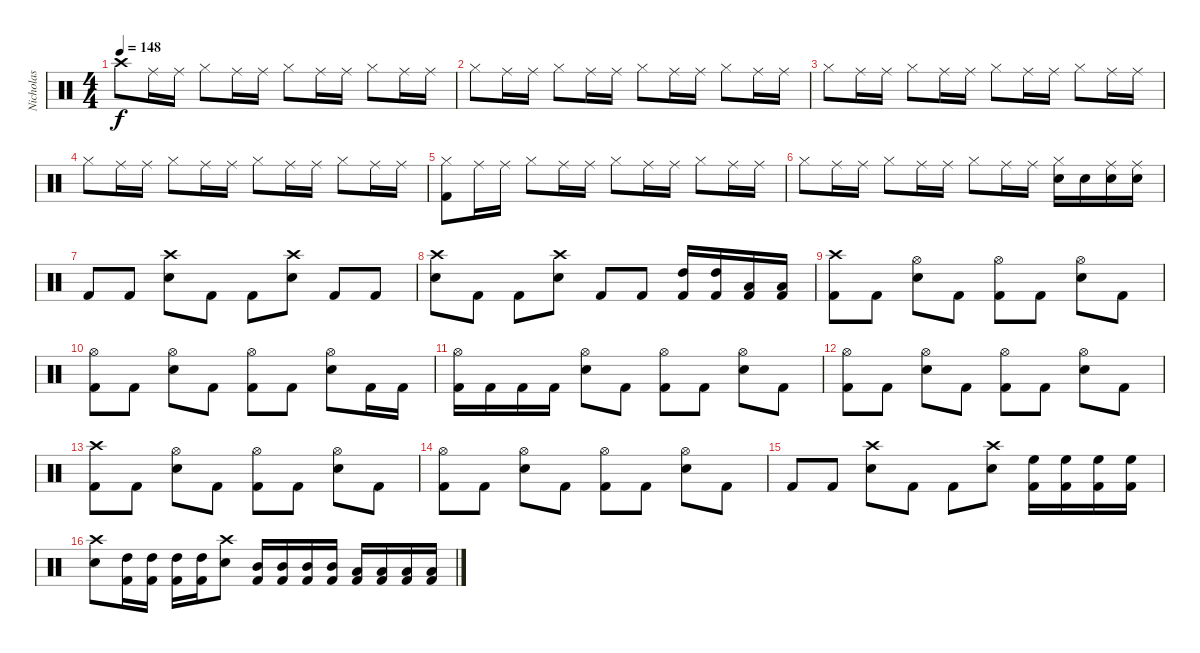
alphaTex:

\track ("Nicholas" "Nicholas") {instrument percussion}
\staff {score}
\articulation defaults
\ts (4 4)
\tempo 148
\clef neutral
\ks c "Crash high (hit)".8{dy f} "Ride (middle)".16 "Ride (middle)".16 "Hi-Hat (closed)".8 "Ride (middle)".16 "Ride (middle)".16 "Hi-Hat (closed)".8 "Ride (middle)".16 "Ride (middle)".16 "Hi-Hat (closed)".8 "Ride (middle)".16 "Ride (middle)".16
|
"Hi-Hat (closed)".8 "Ride (middle)".16 "Ride (middle)".16 "Hi-Hat (closed)".8 "Ride (middle)".16 "Ride (middle)".16 "Hi-Hat (closed)".8 "Ride (middle)".16 "Ride (middle)".16 "Hi-Hat (closed)".8 "Ride (middle)".16 "Ride (middle)".16 |
"Hi-Hat (closed)".8 "Ride (middle)".16 "Ride (middle)".16 "Hi-Hat (closed)".8 "Ride (middle)".16 "Ride (middle)".16 "Hi-Hat (closed)".8 "Ride (middle)".16 "Ride (middle)".16 "Hi-Hat (closed)".8 "Ride (middle)".16 "Ride (middle)".16 |
"Hi-Hat (closed)".8 "Ride (middle)".16 "Ride (middle)".16 "Hi-Hat (closed)".8 "Ride (middle)".16 "Ride (middle)".16 "Hi-Hat (closed)".8 "Ride (middle)".16 "Ride (middle)".16 "Hi-Hat (closed)".8 "Ride (middle)".16 "Ride (middle)".16 |
("Kick (hit) 2" "Hi-Hat (closed)").8 "Ride (middle)".16 "Ride (middle)".16 "Hi-Hat (closed)".8 "Ride (middle)".16 "Ride (middle)".16 "Hi-Hat (closed)".8 "Ride (middle)".16 "Ride (middle)".16 "Hi-Hat (closed)".8 "Ride (middle)".16 "Ride (middle)".16 |
"Hi-Hat (closed)".8 "Ride (middle)".16 "Ride (middle)".16 "Hi-Hat (closed)".8 "Ride (middle)".16 "Ride (middle)".16 "Hi-Hat (closed)".8 "Ride (middle)".16 "Ride (middle)".16 ("Snare (hit) 2" "Hi-Hat (closed)").16 "Snare (hit) 2".16 ("Snare (hit) 2" "Ride (middle)").16 ("Snare (hit) 2" "Ride (middle)").16 |
"Kick (hit) 2".8 "Kick (hit) 2".8 ("Snare (hit) 2" "Crash high (hit)").8 "Kick (hit) 2".8 "Kick (hit) 2".8 ("Snare (hit) 2" "Crash high (hit)").8 "Kick (hit) 2".8 "Kick (hit) 2".8 |
("Snare (hit) 2" "Crash high (hit)").8 "Kick (hit) 2".8 "Kick (hit) 2".8 ("Snare (hit) 2" "Crash high (hit)").8 "Kick (hit) 2".8 "Kick (hit) 2".8 ("Kick (hit) 2" "High Tom (hit)").16 ("Kick (hit) 2" "High Tom (hit)").16 ("Kick (hit) 2" "Low Tom (hit)").16 ("Kick (hit) 2" "Low Tom (hit)").16 |
("Kick (hit) 2" "Crash high (hit)").8 "Kick (hit) 2".8 ("Snare (hit) 2" "Hi-Hat (open)").8 "Kick (hit) 2".8 ("Kick (hit) 2" "Hi-Hat (open)").8 "Kick (hit) 2".8 ("Snare (hit) 2" "Hi-Hat (open)").8 "Kick (hit) 2".8 |
("Kick (hit) 2" "Hi-Hat (open)").8 "Kick (hit) 2".8 ("Snare (hit) 2" "Hi-Hat (open)").8 "Kick (hit) 2".8 ("Kick (hit) 2" "Hi-Hat (open)").8 "Kick (hit) 2".8 ("Snare (hit) 2" "Hi-Hat (open)").8 "Kick (hit) 2".16 "Kick (hit) 2".16 |
("Kick (hit) 2" "Hi-Hat (open)").16 "Kick (hit) 2".16 "Kick (hit) 2".16 "Kick (hit) 2".16 ("Snare (hit) 2" "Hi-Hat (open)").8 "Kick (hit) 2".8 ("Kick (hit) 2" "Hi-Hat (open)").8 "Kick (hit) 2".8 ("Snare (hit) 2" "Hi-Hat (open)").8 "Kick (hit) 2".8 |
("Kick (hit) 2" "Hi-Hat (open)").8 "Kick (hit) 2".8 ("Snare (hit) 2" "Hi-Hat (open)").8 "Kick (hit) 2".8 ("Kick (hit) 2" "Hi-Hat (open)").8 "Kick (hit) 2".8 ("Snare (hit) 2" "Hi-Hat (open)").8 "Kick (hit) 2".8 |
("Kick (hit) 2" "Crash high (hit)").8 "Kick (hit) 2".8 ("Snare (hit) 2" "Hi-Hat (open)").8 "Kick (hit) 2".8 ("Kick (hit) 2" "Hi-Hat (open)").8 "Kick (hit) 2".8 ("Snare (hit) 2" "Hi-Hat (open)").8 "Kick (hit) 2".8 |
("Kick (hit) 2" "Hi-Hat (open)").8 "Kick (hit) 2".8 ("Snare (hit) 2" "Hi-Hat (open)").8 "Kick (hit) 2".8 ("Kick (hit) 2" "Hi-Hat (open)").8 "Kick (hit) 2".8 ("Snare (hit) 2" "Hi-Hat (open)").8 "Kick (hit) 2".8 |
"Kick (hit) 2".8 "Kick (hit) 2".8 ("Snare (hit) 2" "Crash high (hit)").8 "Kick (hit) 2".8 "Kick (hit) 2".8 ("Snare (hit) 2" "Crash high (hit)").8 ("Kick (hit) 2" "High Floor Tom (hit)").16 ("Kick (hit) 2" "High Floor Tom (hit)").16 ("Kick (hit) 2" "High Floor Tom (hit)").16 ("Kick (hit) 2" "High Floor Tom (hit)").16 |
("Snare (hit) 2" "Crash high (hit)").8 ("Kick (hit) 2" "High Tom (hit)").16 ("Kick (hit) 2" "High Tom (hit)").16 ("Kick (hit) 2" "High Tom (hit)").16 ("Kick (hit) 2" "High Tom (hit)").16 ("Snare (hit) 2" "Crash high (hit)").8 ("Kick (hit) 2" "Mid Tom (hit)").16 ("Kick (hit) 2" "Mid Tom (hit)").16 ("Kick (hit) 2" "Mid Tom (hit)").16 ("Kick (hit) 2" "Mid Tom (hit)").16 ("Kick (hit) 2" "Low Tom (hit)").16 ("Kick (hit) 2" "Low Tom (hit)").16 ("Kick (hit) 2" "Low Tom (hit)").16 ("Kick (hit) 2" "Low Tom (hit)").16
